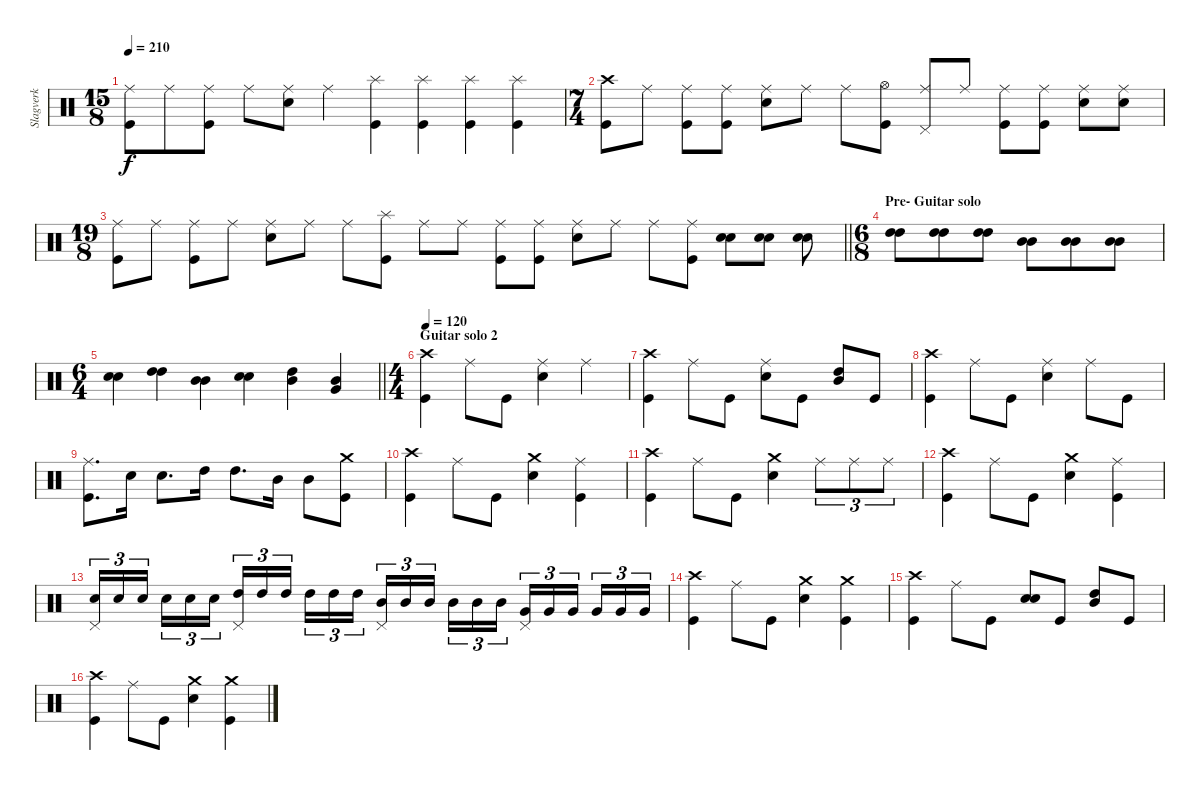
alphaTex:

\track ("Slagverk" "Slagverk") {instrument percussion}
\staff {score}
\articulation defaults
\ts (15 8)
\tempo 210
\clef neutral
\ks c
("Ride (middle)" "Kick (hit)").8{dy f} "Ride (middle)".8 ("Ride (middle)" "Kick (hit)").8 "Ride (middle)".8 ("Ride (middle)" "Electric Snare (hit)").8 "Ride (middle)".4 ("Splash (hit)" "Kick (hit)").4 ("Splash (hit)" "Kick (hit)").4 ("Splash (hit)" "Kick (hit)").4 ("Splash (hit)" "Kick (hit)").4 |
\ts (7 4)
("Crash high (hit)" "Kick (hit)").8 "Ride (middle)".8 ("Ride (middle)" "Kick (hit)").8 ("Ride (middle)" "Kick (hit)").8 ("Ride (middle)" "Electric Snare (hit)").8 "Ride (middle)".8 "Ride (middle)".8 ("Hi-Hat (open)" "Kick (hit)").8 ("Ride (middle)" "Pedal Hi-Hat (hit)").8 "Ride (middle)".8 ("Ride (middle)" "Kick (hit)").8 ("Ride (middle)" "Kick (hit)").8 ("Ride (middle)" "Electric Snare (hit)").8 ("Ride (middle)" "Electric Snare (hit)").8 |
\ts (19 8)
\barLineRight lightlight
("Ride (middle)" "Kick (hit)").8 "Ride (middle)".8 ("Ride (middle)" "Kick (hit)").8 "Ride (middle)".8 ("Ride (middle)" "Electric Snare (hit)").8 "Ride (middle)".8 "Ride (middle)".8 ("Splash (hit)" "Kick (hit)").8 "Ride (middle)".8 "Ride (middle)".8 ("Ride (middle)" "Kick (hit)").8 ("Ride (middle)" "Kick (hit)").8 ("Ride (middle)" "Electric Snare (hit)").8 "Ride (middle)".8 "Ride (middle)".8 ("Ride (middle)" "Kick (hit)").8 ("Electric Snare (hit)" "Electric Snare (hit)").8 ("Electric Snare (hit)" "Electric Snare (hit)").8 ("Electric Snare (hit)" "Electric Snare (hit)").8 |
\ts (6 8)
\section ("" "Pre- Guitar solo")
("High Tom (hit)" "High Tom (hit)").8 ("High Tom (hit)" "High Tom (hit)").8 ("High Tom (hit)" "High Tom (hit)").8 ("Mid Tom (hit)" "Mid Tom (hit)").8 ("Mid Tom (hit)" "Mid Tom (hit)").8 ("Mid Tom (hit)" "Mid Tom (hit)").8 |
\ts (6 4)
\barLineRight lightlight
("Electric Snare (hit)" "Electric Snare (hit)").4 ("High Tom (hit)" "High Tom (hit)").4 ("Mid Tom (hit)" "Mid Tom (hit)").4 ("Electric Snare (hit)" "Electric Snare (hit)").4 ("Mid Tom (hit)" "High Tom (hit)").4 ("Mid Tom (hit)" "Very Low Tom (hit)").4 |
\ts (4 4)
\section ("" "Guitar solo 2")
\tempo 120
("Crash high (hit)" "Kick (hit)").4 "Ride (middle)".8 "Kick (hit)".8 ("Ride (middle)" "Electric Snare (hit)").4 "Ride (middle)".4 |
("Crash high (hit)" "Kick (hit)").4 "Ride (middle)".8 "Kick (hit)".8 ("Ride (middle)" "Electric Snare (hit)").8 "Kick (hit)".8 ("Mid Tom (hit)" "High Tom (hit)").8 "Kick (hit)".8 |
("Crash high (hit)" "Kick (hit)").4 "Ride (middle)".8 "Kick (hit)".8 ("Ride (middle)" "Electric Snare (hit)").4 "Ride (middle)".8 "Kick (hit)".8 |
("Ride (middle)" "Kick (hit)").8{d} "Electric Snare (hit)".16 "Electric Snare (hit)".8{d} "High Tom (hit)".16 "High Tom (hit)".8{d} "Mid Tom (hit)".16 "Mid Tom (hit)".8 ("Crash medium (hit)" "Kick (hit)").8 |
("Crash high (hit)" "Kick (hit)").4 "Ride (middle)".8 "Kick (hit)".8 ("Crash medium (hit)" "Electric Snare (hit)").4 ("Ride (middle)" "Kick (hit)").4 |
("Crash high (hit)" "Kick (hit)").4 "Ride (middle)".8 "Kick (hit)".8 ("Crash medium (hit)" "Electric Snare (hit)").4 "Ride (middle)".8{tu (3 2)} "Ride (middle)".8{tu (3 2)} "Ride (middle)".8{tu (3 2)} |
("Crash high (hit)" "Kick (hit)").4 "Ride (middle)".8 "Kick (hit)".8 ("Crash medium (hit)" "Electric Snare (hit)").4 ("Ride (middle)" "Kick (hit)").4 |
("Electric Snare (hit)" "Pedal Hi-Hat (hit)").16{tu (3 2)} "Electric Snare (hit)".16{tu (3 2)} "Electric Snare (hit)".16{tu (3 2) beam splitsecondary} "Electric Snare (hit)".16{tu (3 2)} "Electric Snare (hit)".16{tu (3 2)} "Electric Snare (hit)".16{tu (3 2)} ("High Tom (hit)" "Pedal Hi-Hat (hit)").16{tu (3 2)} "High Tom (hit)".16{tu (3 2)} "High Tom (hit)".16{tu (3 2) beam splitsecondary} "High Tom (hit)".16{tu (3 2)} "High Tom (hit)".16{tu (3 2)} "High Tom (hit)".16{tu (3 2)} ("Mid Tom (hit)" "Pedal Hi-Hat (hit)").16{tu (3 2)} "Mid Tom (hit)".16{tu (3 2)} "Mid Tom (hit)".16{tu (3 2) beam splitsecondary} "Mid Tom (hit)".16{tu (3 2)} "Mid Tom (hit)".16{tu (3 2)} "Mid Tom (hit)".16{tu (3 2)} ("Very Low Tom (hit)" "Pedal Hi-Hat (hit)").16{tu (3 2)} "Very Low Tom (hit)".16{tu (3 2)} "Very Low Tom (hit)".16{tu (3 2) beam splitsecondary} "Very Low Tom (hit)".16{tu (3 2)} "Very Low Tom (hit)".16{tu (3 2)} "Very Low Tom (hit)".16{tu (3 2)} |
("Crash high (hit)" "Kick (hit)").4 "Ride (middle)".8 "Kick (hit)".8 ("Crash medium (hit)" "Electric Snare (hit)").4 ("Crash medium (hit)" "Kick (hit)").4 |
("Crash high (hit)" "Kick (hit)").4 "Ride (middle)".8 "Kick (hit)".8 ("Electric Snare (hit)" "Electric Snare (hit)").8 "Kick (hit)".8 ("High Tom (hit)" "Mid Tom (hit)").8 "Kick (hit)".8 |
("Crash high (hit)" "Kick (hit)").4 "Ride (middle)".8 "Kick (hit)".8 ("Crash medium (hit)" "Electric Snare (hit)").4 ("Crash medium (hit)" "Kick (hit)").4
